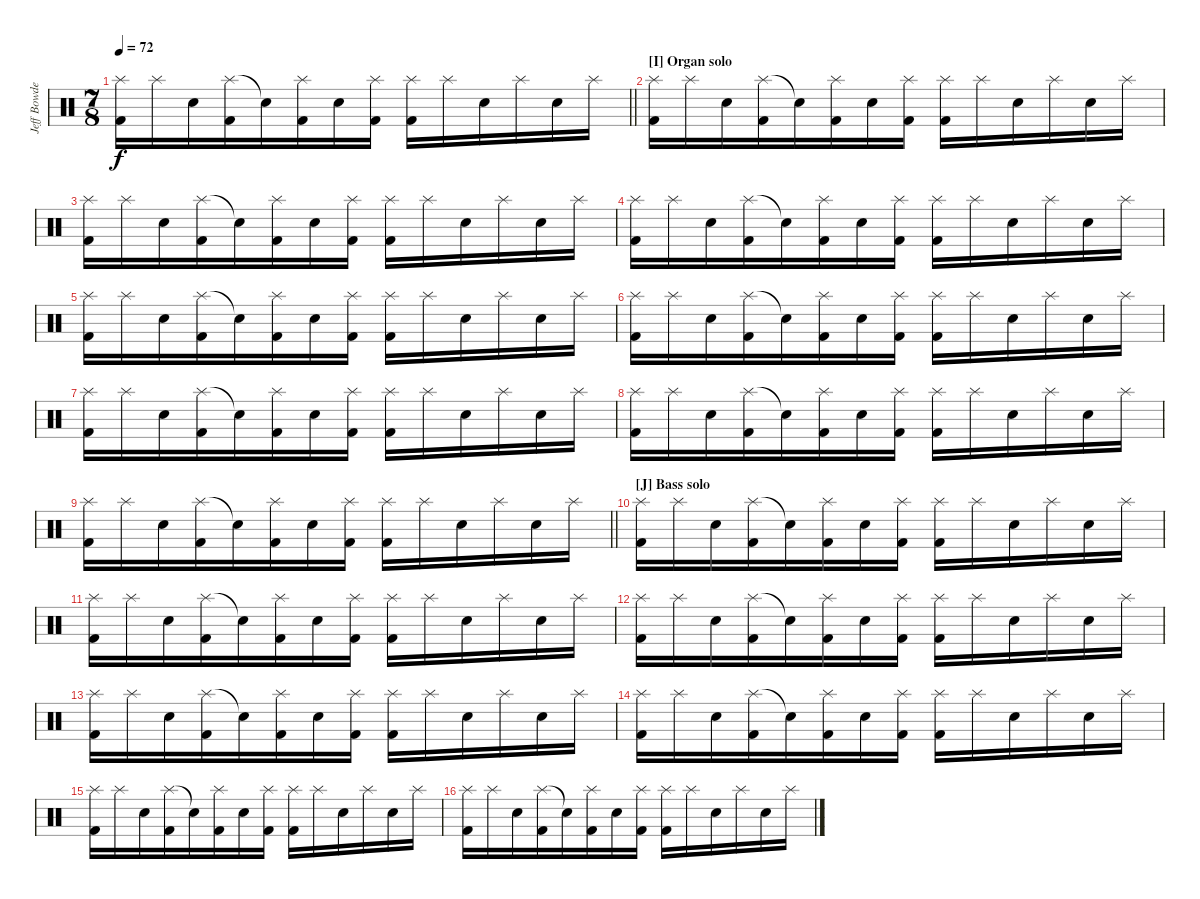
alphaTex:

\track ("Jeff Bowders" "Jeff Bowde") {instrument percussion}
\staff {score}
\articulation defaults
\ts (7 8)
\tempo 72
\clef neutral
\barLineRight lightlight
\ks aminor
("Splash (hit)" "Kick (hit) 2").16{dy f} "Splash (hit)".16 "Electric Snare (hit)".16 ("Splash (hit)" "Kick (hit) 2").16 "Snare (hit)"{t}.16 ("Splash (hit)" "Kick (hit) 2").16 "Electric Snare (hit)".16 ("Splash (hit)" "Kick (hit) 2").16 ("Splash (hit)" "Kick (hit) 2").16 "Splash (hit)".16 "Electric Snare (hit)".16 "Splash (hit)".16 "Electric Snare (hit)".16 "Splash (hit)".16 |
\section ("" "[I] Organ solo")
("Splash (hit)" "Kick (hit) 2").16 "Splash (hit)".16 "Electric Snare (hit)".16 ("Splash (hit)" "Kick (hit) 2").16 "Snare (hit)"{t}.16 ("Splash (hit)" "Kick (hit) 2").16 "Electric Snare (hit)".16 ("Splash (hit)" "Kick (hit) 2").16 ("Splash (hit)" "Kick (hit) 2").16 "Splash (hit)".16 "Electric Snare (hit)".16 "Splash (hit)".16 "Electric Snare (hit)".16 "Splash (hit)".16 |
("Splash (hit)" "Kick (hit) 2").16 "Splash (hit)".16 "Electric Snare (hit)".16 ("Splash (hit)" "Kick (hit) 2").16 "Snare (hit)"{t}.16 ("Splash (hit)" "Kick (hit) 2").16 "Electric Snare (hit)".16 ("Splash (hit)" "Kick (hit) 2").16 ("Splash (hit)" "Kick (hit) 2").16 "Splash (hit)".16 "Electric Snare (hit)".16 "Splash (hit)".16 "Electric Snare (hit)".16 "Splash (hit)".16 |
("Splash (hit)" "Kick (hit) 2").16 "Splash (hit)".16 "Electric Snare (hit)".16 ("Splash (hit)" "Kick (hit) 2").16 "Snare (hit)"{t}.16 ("Splash (hit)" "Kick (hit) 2").16 "Electric Snare (hit)".16 ("Splash (hit)" "Kick (hit) 2").16 ("Splash (hit)" "Kick (hit) 2").16 "Splash (hit)".16 "Electric Snare (hit)".16 "Splash (hit)".16 "Electric Snare (hit)".16 "Splash (hit)".16 |
("Splash (hit)" "Kick (hit) 2").16 "Splash (hit)".16 "Electric Snare (hit)".16 ("Splash (hit)" "Kick (hit) 2").16 "Snare (hit)"{t}.16 ("Splash (hit)" "Kick (hit) 2").16 "Electric Snare (hit)".16 ("Splash (hit)" "Kick (hit) 2").16 ("Splash (hit)" "Kick (hit) 2").16 "Splash (hit)".16 "Electric Snare (hit)".16 "Splash (hit)".16 "Electric Snare (hit)".16 "Splash (hit)".16 |
("Splash (hit)" "Kick (hit) 2").16 "Splash (hit)".16 "Electric Snare (hit)".16 ("Splash (hit)" "Kick (hit) 2").16 "Snare (hit)"{t}.16 ("Splash (hit)" "Kick (hit) 2").16 "Electric Snare (hit)".16 ("Splash (hit)" "Kick (hit) 2").16 ("Splash (hit)" "Kick (hit) 2").16 "Splash (hit)".16 "Electric Snare (hit)".16 "Splash (hit)".16 "Electric Snare (hit)".16 "Splash (hit)".16 |
("Splash (hit)" "Kick (hit) 2").16 "Splash (hit)".16 "Electric Snare (hit)".16 ("Splash (hit)" "Kick (hit) 2").16 "Snare (hit)"{t}.16 ("Splash (hit)" "Kick (hit) 2").16 "Electric Snare (hit)".16 ("Splash (hit)" "Kick (hit) 2").16 ("Splash (hit)" "Kick (hit) 2").16 "Splash (hit)".16 "Electric Snare (hit)".16 "Splash (hit)".16 "Electric Snare (hit)".16 "Splash (hit)".16 |
("Splash (hit)" "Kick (hit) 2").16 "Splash (hit)".16 "Electric Snare (hit)".16 ("Splash (hit)" "Kick (hit) 2").16 "Snare (hit)"{t}.16 ("Splash (hit)" "Kick (hit) 2").16 "Electric Snare (hit)".16 ("Splash (hit)" "Kick (hit) 2").16 ("Splash (hit)" "Kick (hit) 2").16 "Splash (hit)".16 "Electric Snare (hit)".16 "Splash (hit)".16 "Electric Snare (hit)".16 "Splash (hit)".16 |
\barLineRight lightlight
("Splash (hit)" "Kick (hit) 2").16 "Splash (hit)".16 "Electric Snare (hit)".16 ("Splash (hit)" "Kick (hit) 2").16 "Snare (hit)"{t}.16 ("Splash (hit)" "Kick (hit) 2").16 "Electric Snare (hit)".16 ("Splash (hit)" "Kick (hit) 2").16 ("Splash (hit)" "Kick (hit) 2").16 "Splash (hit)".16 "Electric Snare (hit)".16 "Splash (hit)".16 "Electric Snare (hit)".16 "Splash (hit)".16 |
\section ("" "[J] Bass solo")
("Splash (hit)" "Kick (hit) 2").16 "Splash (hit)".16 "Electric Snare (hit)".16 ("Splash (hit)" "Kick (hit) 2").16 "Snare (hit)"{t}.16 ("Splash (hit)" "Kick (hit) 2").16 "Electric Snare (hit)".16 ("Splash (hit)" "Kick (hit) 2").16 ("Splash (hit)" "Kick (hit) 2").16 "Splash (hit)".16 "Electric Snare (hit)".16 "Splash (hit)".16 "Electric Snare (hit)".16 "Splash (hit)".16 |
("Splash (hit)" "Kick (hit) 2").16 "Splash (hit)".16 "Electric Snare (hit)".16 ("Splash (hit)" "Kick (hit) 2").16 "Snare (hit)"{t}.16 ("Splash (hit)" "Kick (hit) 2").16 "Electric Snare (hit)".16 ("Splash (hit)" "Kick (hit) 2").16 ("Splash (hit)" "Kick (hit) 2").16 "Splash (hit)".16 "Electric Snare (hit)".16 "Splash (hit)".16 "Electric Snare (hit)".16 "Splash (hit)".16 |
("Splash (hit)" "Kick (hit) 2").16 "Splash (hit)".16 "Electric Snare (hit)".16 ("Splash (hit)" "Kick (hit) 2").16 "Snare (hit)"{t}.16 ("Splash (hit)" "Kick (hit) 2").16 "Electric Snare (hit)".16 ("Splash (hit)" "Kick (hit) 2").16 ("Splash (hit)" "Kick (hit) 2").16 "Splash (hit)".16 "Electric Snare (hit)".16 "Splash (hit)".16 "Electric Snare (hit)".16 "Splash (hit)".16 |
("Splash (hit)" "Kick (hit) 2").16 "Splash (hit)".16 "Electric Snare (hit)".16 ("Splash (hit)" "Kick (hit) 2").16 "Snare (hit)"{t}.16 ("Splash (hit)" "Kick (hit) 2").16 "Electric Snare (hit)".16 ("Splash (hit)" "Kick (hit) 2").16 ("Splash (hit)" "Kick (hit) 2").16 "Splash (hit)".16 "Electric Snare (hit)".16 "Splash (hit)".16 "Electric Snare (hit)".16 "Splash (hit)".16 |
("Splash (hit)" "Kick (hit) 2").16 "Splash (hit)".16 "Electric Snare (hit)".16 ("Splash (hit)" "Kick (hit) 2").16 "Snare (hit)"{t}.16 ("Splash (hit)" "Kick (hit) 2").16 "Electric Snare (hit)".16 ("Splash (hit)" "Kick (hit) 2").16 ("Splash (hit)" "Kick (hit) 2").16 "Splash (hit)".16 "Electric Snare (hit)".16 "Splash (hit)".16 "Electric Snare (hit)".16 "Splash (hit)".16 |
("Splash (hit)" "Kick (hit) 2").16 "Splash (hit)".16 "Electric Snare (hit)".16 ("Splash (hit)" "Kick (hit) 2").16 "Snare (hit)"{t}.16 ("Splash (hit)" "Kick (hit) 2").16 "Electric Snare (hit)".16 ("Splash (hit)" "Kick (hit) 2").16 ("Splash (hit)" "Kick (hit) 2").16 "Splash (hit)".16 "Electric Snare (hit)".16 "Splash (hit)".16 "Electric Snare (hit)".16 "Splash (hit)".16 |
("Splash (hit)" "Kick (hit) 2").16 "Splash (hit)".16 "Electric Snare (hit)".16 ("Splash (hit)" "Kick (hit) 2").16 "Snare (hit)"{t}.16 ("Splash (hit)" "Kick (hit) 2").16 "Electric Snare (hit)".16 ("Splash (hit)" "Kick (hit) 2").16 ("Splash (hit)" "Kick (hit) 2").16 "Splash (hit)".16 "Electric Snare (hit)".16 "Splash (hit)".16 "Electric Snare (hit)".16 "Splash (hit)".16
